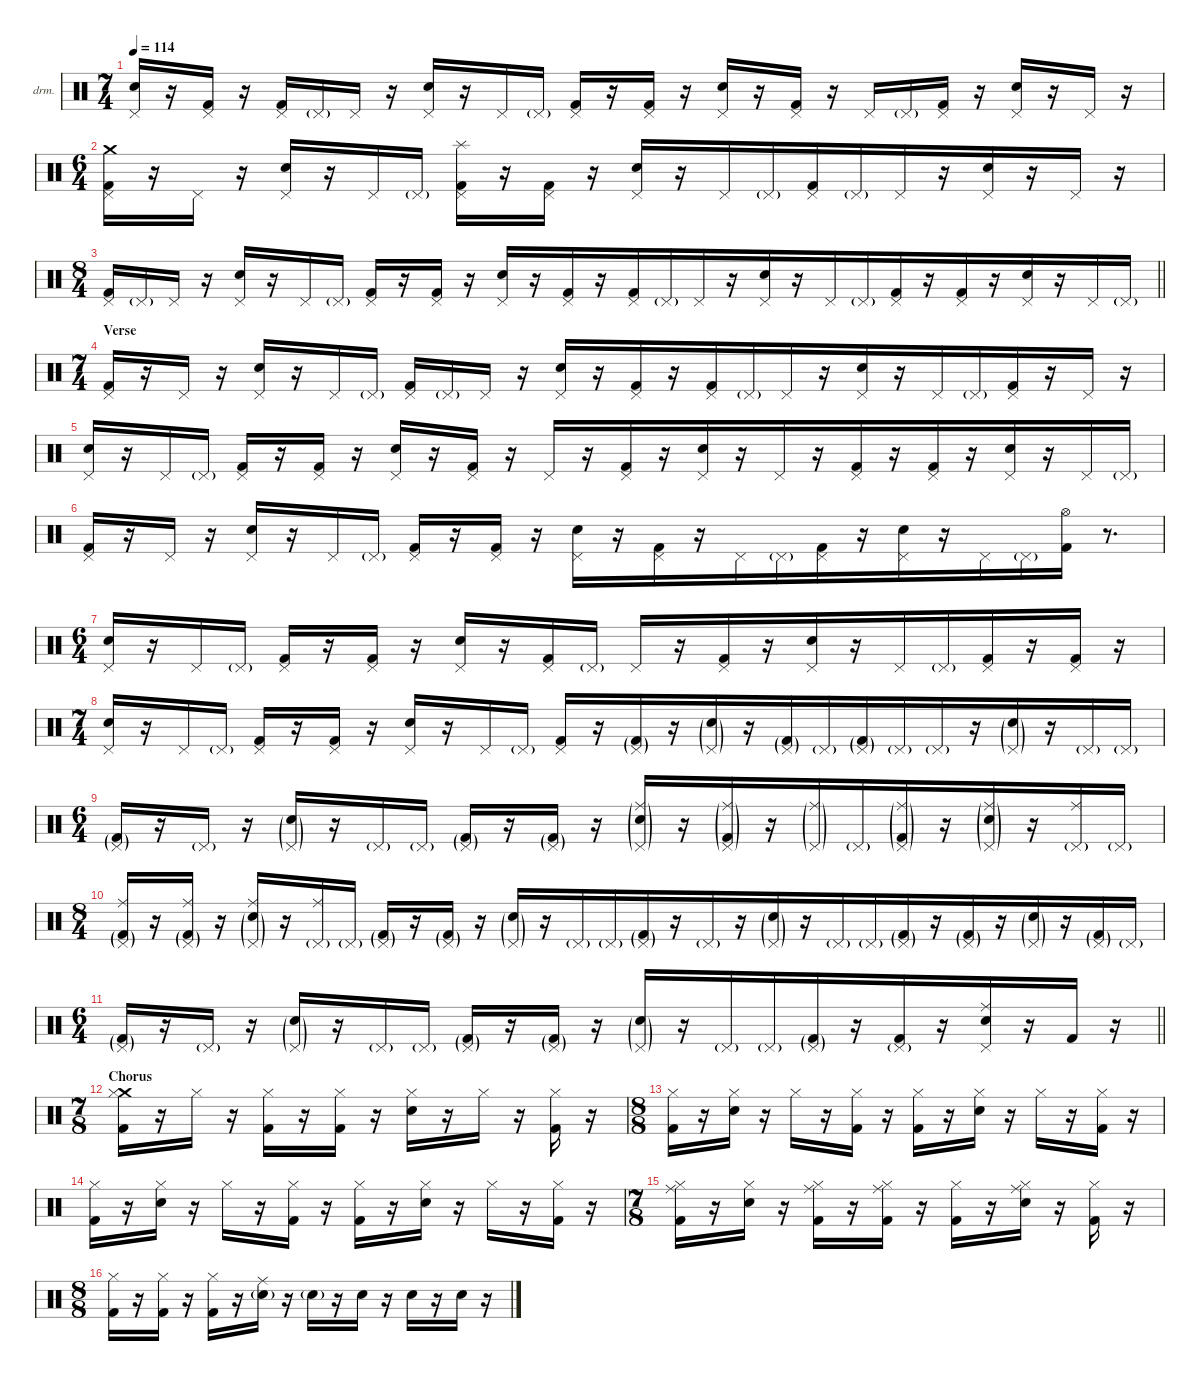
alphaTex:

\defaultSystemsLayout 4
\hideDynamics
\bracketExtendMode nobrackets
\firstSystemTrackNameOrientation horizontal
\otherSystemsTrackNameOrientation horizontal
\track ("Drums" "drm.") {instrument percussion}
\staff {score}
\articulation defaults
\ts (7 4)
\tempo 114
\clef neutral
\ks c
("Pedal Hi-Hat (hit)" "Snare (hit) 2").16{dy f} r.16 ("Pedal Hi-Hat (hit)" "Kick (hit) 2").16 r.16 ("Pedal Hi-Hat (hit)" "Kick (hit) 2").16 "Pedal Hi-Hat (hit)"{g}.16{dy mf} "Pedal Hi-Hat (hit)".16{dy f} r.16 ("Pedal Hi-Hat (hit)" "Snare (hit) 2").16 r.16 "Pedal Hi-Hat (hit)".16 "Pedal Hi-Hat (hit)"{g}.16{dy mf} ("Pedal Hi-Hat (hit)" "Kick (hit) 2").16{dy f} r.16 ("Pedal Hi-Hat (hit)" "Kick (hit) 2").16 r.16 ("Pedal Hi-Hat (hit)" "Snare (hit) 2").16 r.16 ("Pedal Hi-Hat (hit)" "Kick (hit) 2").16 r.16 "Pedal Hi-Hat (hit)".16 "Pedal Hi-Hat (hit)"{g}.16{dy mf} ("Pedal Hi-Hat (hit)" "Kick (hit) 2").16{dy f} r.16 ("Pedal Hi-Hat (hit)" "Snare (hit) 2").16 r.16 "Pedal Hi-Hat (hit)".16 r.16 |
\ts (6 4)
\beaming (8 2 2 2 6)
("Crash medium (hit)" "Pedal Hi-Hat (hit)" "Kick (hit) 2").16 r.16 "Pedal Hi-Hat (hit)".16 r.16 ("Pedal Hi-Hat (hit)" "Snare (hit) 2").16 r.16 "Pedal Hi-Hat (hit)".16 "Pedal Hi-Hat (hit)"{g}.16{dy mf} ("Splash (hit)" "Pedal Hi-Hat (hit)" "Kick (hit) 2").16{dy f} r.16 ("Pedal Hi-Hat (hit)" "Kick (hit) 2").16 r.16 ("Pedal Hi-Hat (hit)" "Snare (hit) 2").16 r.16 "Pedal Hi-Hat (hit)".16 "Pedal Hi-Hat (hit)"{g}.16{dy mf} ("Pedal Hi-Hat (hit)" "Kick (hit) 2").16{dy f} "Pedal Hi-Hat (hit)"{g}.16{dy mf} "Pedal Hi-Hat (hit)".16{dy f} r.16 ("Pedal Hi-Hat (hit)" "Snare (hit) 2").16 r.16 "Pedal Hi-Hat (hit)".16 r.16 |
\ts (8 4)
\beaming (8 2 2 2 10)
\barLineRight lightlight
("Pedal Hi-Hat (hit)" "Kick (hit) 2").16 "Pedal Hi-Hat (hit)"{g}.16{dy mf} "Pedal Hi-Hat (hit)".16{dy f} r.16 ("Pedal Hi-Hat (hit)" "Snare (hit) 2").16 r.16 "Pedal Hi-Hat (hit)".16 "Pedal Hi-Hat (hit)"{g}.16{dy mf} ("Pedal Hi-Hat (hit)" "Kick (hit) 2").16{dy f} r.16 ("Pedal Hi-Hat (hit)" "Kick (hit) 2").16 r.16 ("Pedal Hi-Hat (hit)" "Snare (hit) 2").16 r.16 ("Pedal Hi-Hat (hit)" "Kick (hit) 2").16 r.16 ("Pedal Hi-Hat (hit)" "Kick (hit) 2").16 "Pedal Hi-Hat (hit)"{g}.16{dy mf} "Pedal Hi-Hat (hit)".16{dy f} r.16 ("Pedal Hi-Hat (hit)" "Snare (hit) 2").16 r.16 "Pedal Hi-Hat (hit)".16 "Pedal Hi-Hat (hit)"{g}.16{dy mf} ("Pedal Hi-Hat (hit)" "Kick (hit) 2").16{dy f} r.16 ("Pedal Hi-Hat (hit)" "Kick (hit) 2").16 r.16 ("Pedal Hi-Hat (hit)" "Snare (hit) 2").16 r.16 "Pedal Hi-Hat (hit)".16 "Pedal Hi-Hat (hit)"{g}.16{dy mf} |
\ts (7 4)
\beaming (8 2 2 2 8)
\section ("" "Verse")
("Pedal Hi-Hat (hit)" "Kick (hit) 2").16{dy f} r.16 "Pedal Hi-Hat (hit)".16 r.16 ("Pedal Hi-Hat (hit)" "Snare (hit) 2").16 r.16 "Pedal Hi-Hat (hit)".16 "Pedal Hi-Hat (hit)"{g}.16{dy mf} ("Pedal Hi-Hat (hit)" "Kick (hit) 2").16{dy f} "Pedal Hi-Hat (hit)"{g}.16{dy mf} "Pedal Hi-Hat (hit)".16{dy f} r.16 ("Pedal Hi-Hat (hit)" "Snare (hit) 2").16 r.16 ("Pedal Hi-Hat (hit)" "Kick (hit) 2").16 r.16 ("Pedal Hi-Hat (hit)" "Kick (hit) 2").16 "Pedal Hi-Hat (hit)"{g}.16{dy mf} "Pedal Hi-Hat (hit)".16{dy f} r.16 ("Pedal Hi-Hat (hit)" "Snare (hit) 2").16 r.16 "Pedal Hi-Hat (hit)".16 "Pedal Hi-Hat (hit)"{g}.16{dy mf} ("Pedal Hi-Hat (hit)" "Kick (hit) 2").16{dy f} r.16 "Pedal Hi-Hat (hit)".16 r.16 |
("Pedal Hi-Hat (hit)" "Snare (hit) 2").16 r.16 "Pedal Hi-Hat (hit)".16 "Pedal Hi-Hat (hit)"{g}.16{dy mf} ("Pedal Hi-Hat (hit)" "Kick (hit) 2").16{dy f} r.16 ("Pedal Hi-Hat (hit)" "Kick (hit) 2").16 r.16 ("Pedal Hi-Hat (hit)" "Snare (hit) 2").16 r.16 ("Pedal Hi-Hat (hit)" "Kick (hit) 2").16 r.16 "Pedal Hi-Hat (hit)".16 r.16 ("Pedal Hi-Hat (hit)" "Kick (hit) 2").16 r.16 ("Pedal Hi-Hat (hit)" "Snare (hit) 2").16 r.16 "Pedal Hi-Hat (hit)".16 r.16 ("Pedal Hi-Hat (hit)" "Kick (hit) 2").16 r.16 ("Pedal Hi-Hat (hit)" "Kick (hit) 2").16 r.16 ("Pedal Hi-Hat (hit)" "Snare (hit) 2").16 r.16 "Pedal Hi-Hat (hit)".16 "Pedal Hi-Hat (hit)"{g}.16{dy mf} |
("Pedal Hi-Hat (hit)" "Kick (hit) 2").16{dy f} r.16 "Pedal Hi-Hat (hit)".16 r.16 ("Pedal Hi-Hat (hit)" "Snare (hit) 2").16 r.16 "Pedal Hi-Hat (hit)".16 "Pedal Hi-Hat (hit)"{g}.16{dy mf} ("Pedal Hi-Hat (hit)" "Kick (hit) 2").16{dy f} r.16 ("Pedal Hi-Hat (hit)" "Kick (hit) 2").16 r.16 ("Pedal Hi-Hat (hit)" "Snare (hit) 2").16 r.16 ("Pedal Hi-Hat (hit)" "Kick (hit) 2").16 r.16 "Pedal Hi-Hat (hit)".16 "Pedal Hi-Hat (hit)"{g}.16{dy mf} ("Pedal Hi-Hat (hit)" "Kick (hit) 2").16{dy f} r.16 ("Pedal Hi-Hat (hit)" "Snare (hit) 2").16 r.16 "Pedal Hi-Hat (hit)".16 "Pedal Hi-Hat (hit)"{g}.16{dy mf} ("Hi-Hat (open)" "Kick (hit) 2").16{dy f} r.8{d} |
\ts (6 4)
\beaming (8 2 2 2 6)
("Pedal Hi-Hat (hit)" "Snare (hit) 2").16 r.16 "Pedal Hi-Hat (hit)".16 "Pedal Hi-Hat (hit)"{g}.16{dy mf} ("Pedal Hi-Hat (hit)" "Kick (hit) 2").16{dy f} r.16 ("Pedal Hi-Hat (hit)" "Kick (hit) 2").16 r.16 ("Pedal Hi-Hat (hit)" "Snare (hit) 2").16 r.16 ("Pedal Hi-Hat (hit)" "Kick (hit) 2").16 "Pedal Hi-Hat (hit)"{g}.16{dy mf} "Pedal Hi-Hat (hit)".16{dy f} r.16 ("Pedal Hi-Hat (hit)" "Kick (hit) 2").16 r.16 ("Pedal Hi-Hat (hit)" "Snare (hit) 2").16 r.16 "Pedal Hi-Hat (hit)".16 "Pedal Hi-Hat (hit)"{g}.16{dy mf} ("Pedal Hi-Hat (hit)" "Kick (hit) 2").16{dy f} r.16 ("Pedal Hi-Hat (hit)" "Kick (hit) 2").16 r.16 |
\ts (7 4)
\beaming (8 2 2 2 8)
("Pedal Hi-Hat (hit)" "Snare (hit) 2").16 r.16 "Pedal Hi-Hat (hit)".16 "Pedal Hi-Hat (hit)"{g}.16{dy mf} ("Pedal Hi-Hat (hit)" "Kick (hit) 2").16{dy f} r.16 ("Pedal Hi-Hat (hit)" "Kick (hit) 2").16 r.16 ("Pedal Hi-Hat (hit)" "Snare (hit) 2").16 r.16 "Pedal Hi-Hat (hit)".16 "Pedal Hi-Hat (hit)"{g}.16{dy mf} ("Pedal Hi-Hat (hit)" "Kick (hit) 2").16{dy f} r.16 ("Pedal Hi-Hat (hit)"{g} "Kick (hit) 2"{g}).16{dy mf} r.16 ("Pedal Hi-Hat (hit)"{g} "Snare (hit) 2"{g}).16 r.16 ("Pedal Hi-Hat (hit)"{g} "Kick (hit) 2"{g}).16 "Pedal Hi-Hat (hit)"{g}.16{dy p} ("Pedal Hi-Hat (hit)"{g} "Kick (hit) 2"{g}).16{dy mf} "Pedal Hi-Hat (hit)"{g}.16{dy p} "Pedal Hi-Hat (hit)"{g}.16{dy mf} r.16 ("Pedal Hi-Hat (hit)"{g} "Snare (hit) 2"{g}).16 r.16 "Pedal Hi-Hat (hit)"{g}.16 "Pedal Hi-Hat (hit)"{g}.16{dy p} |
\ts (6 4)
\beaming (8 2 2 2 6)
("Pedal Hi-Hat (hit)"{g} "Kick (hit) 2"{g}).16{dy mf} r.16 "Pedal Hi-Hat (hit)"{g}.16 r.16 ("Pedal Hi-Hat (hit)"{g} "Snare (hit) 2"{g}).16 r.16 "Pedal Hi-Hat (hit)"{g}.16 "Pedal Hi-Hat (hit)"{g}.16{dy p} ("Pedal Hi-Hat (hit)"{g} "Kick (hit) 2"{g}).16{dy mf} r.16 ("Pedal Hi-Hat (hit)"{g} "Kick (hit) 2"{g}).16 r.16 ("Ride (middle)"{g} "Pedal Hi-Hat (hit)"{g} "Snare (hit) 2"{g}).16 r.16 ("Ride (middle)"{g} "Pedal Hi-Hat (hit)"{g} "Kick (hit) 2"{g}).16 r.16 ("Ride (middle)"{g} "Pedal Hi-Hat (hit)"{g}).16 "Pedal Hi-Hat (hit)"{g}.16{dy p} ("Ride (middle)"{g} "Pedal Hi-Hat (hit)"{g} "Kick (hit) 2"{g}).16{dy mf} r.16 ("Ride (middle)"{g} "Pedal Hi-Hat (hit)"{g} "Snare (hit) 2"{g}).16 r.16 ("Ride (middle)" "Pedal Hi-Hat (hit)"{g}).16{dy f} "Pedal Hi-Hat (hit)"{g}.16{dy p} |
\ts (8 4)
\beaming (8 2 2 2 10)
("Ride (middle)" "Pedal Hi-Hat (hit)"{g} "Kick (hit) 2"{g}).16{dy f} r.16 ("Ride (middle)" "Pedal Hi-Hat (hit)"{g} "Kick (hit) 2"{g}).16 r.16 ("Ride (middle)" "Pedal Hi-Hat (hit)"{g} "Snare (hit) 2"{g}).16 r.16 ("Ride (middle)" "Pedal Hi-Hat (hit)"{g}).16 "Pedal Hi-Hat (hit)"{g}.16{dy p} ("Pedal Hi-Hat (hit)"{g} "Kick (hit) 2"{g}).16{dy mf} r.16 ("Pedal Hi-Hat (hit)"{g} "Kick (hit) 2"{g}).16 r.16 ("Pedal Hi-Hat (hit)"{g} "Snare (hit) 2"{g}).16 r.16 "Pedal Hi-Hat (hit)"{g}.16 "Pedal Hi-Hat (hit)"{g}.16{dy p} ("Pedal Hi-Hat (hit)"{g} "Kick (hit) 2"{g}).16{dy mf} r.16 "Pedal Hi-Hat (hit)"{g}.16 r.16 ("Pedal Hi-Hat (hit)"{g} "Snare (hit) 2"{g}).16 r.16 "Pedal Hi-Hat (hit)"{g}.16 "Pedal Hi-Hat (hit)"{g}.16{dy p} ("Pedal Hi-Hat (hit)"{g} "Kick (hit) 2"{g}).16{dy mf} r.16 ("Pedal Hi-Hat (hit)"{g} "Kick (hit) 2"{g}).16 r.16 ("Pedal Hi-Hat (hit)"{g} "Snare (hit) 2"{g}).16 r.16 ("Pedal Hi-Hat (hit)"{g} "Kick (hit) 2"{g}).16 "Pedal Hi-Hat (hit)"{g}.16{dy p} |
\ts (6 4)
\beaming (8 2 2 2 6)
\barLineRight lightlight
("Pedal Hi-Hat (hit)"{g} "Kick (hit) 2"{g}).16{dy mf} r.16 "Pedal Hi-Hat (hit)"{g}.16 r.16 ("Pedal Hi-Hat (hit)"{g} "Snare (hit) 2"{g}).16 r.16 "Pedal Hi-Hat (hit)"{g}.16 "Pedal Hi-Hat (hit)"{g}.16{dy p} ("Pedal Hi-Hat (hit)"{g} "Kick (hit) 2"{g}).16{dy mf} r.16 ("Pedal Hi-Hat (hit)"{g} "Kick (hit) 2"{g}).16 r.16 ("Pedal Hi-Hat (hit)"{g} "Snare (hit) 2"{g}).16 r.16 "Pedal Hi-Hat (hit)"{g}.16 "Pedal Hi-Hat (hit)"{g}.16{dy p} ("Pedal Hi-Hat (hit)"{g} "Kick (hit) 2"{g}).16{dy mf} r.16 ("Pedal Hi-Hat (hit)"{g} "Kick (hit) 2").16{dy f} r.16 ("Ride (middle)" "Pedal Hi-Hat (hit)" "Snare (hit) 2").16 r.16 "Kick (hit) 2".16 r.16 |
\ts (7 8)
\beaming (8 2 2 2 2)
\section ("" "Chorus")
("Crash medium (hit)" "Hi-Hat (closed)" "Kick (hit) 2").16 r.16 "Hi-Hat (closed)".16 r.16 ("Hi-Hat (closed)" "Kick (hit) 2").16 r.16 ("Hi-Hat (closed)" "Kick (hit) 2").16 r.16 ("Hi-Hat (closed)" "Snare (hit) 2").16 r.16 "Hi-Hat (closed)".16 r.16 ("Hi-Hat (closed)" "Kick (hit) 2").16 r.16 |
\ts (8 8)
\beaming (8 2 2 2 2)
("Hi-Hat (closed)" "Kick (hit) 2").16 r.16 ("Hi-Hat (closed)" "Snare (hit) 2").16 r.16 "Hi-Hat (closed)".16 r.16 ("Hi-Hat (closed)" "Kick (hit) 2").16 r.16 ("Hi-Hat (closed)" "Kick (hit) 2").16 r.16 ("Hi-Hat (closed)" "Snare (hit) 2").16 r.16 "Hi-Hat (closed)".16 r.16 ("Hi-Hat (closed)" "Kick (hit) 2").16 r.16 |
("Hi-Hat (closed)" "Kick (hit) 2").16 r.16 ("Hi-Hat (closed)" "Snare (hit) 2").16 r.16 "Hi-Hat (closed)".16 r.16 ("Hi-Hat (closed)" "Kick (hit) 2").16 r.16 ("Hi-Hat (closed)" "Kick (hit) 2").16 r.16 ("Hi-Hat (closed)" "Snare (hit) 2").16 r.16 "Hi-Hat (closed)".16 r.16 ("Hi-Hat (closed)" "Kick (hit) 2").16 r.16 |
\ts (7 8)
\beaming (8 2 2 2 2)
("Ride (middle)" "Hi-Hat (closed)" "Kick (hit) 2").16 r.16 ("Hi-Hat (closed)" "Snare (hit) 2").16 r.16 ("Ride (middle)" "Hi-Hat (closed)" "Kick (hit) 2").16 r.16 ("Ride (middle)" "Hi-Hat (closed)" "Kick (hit) 2").16 r.16 ("Hi-Hat (closed)" "Kick (hit) 2").16 r.16 ("Ride (middle)" "Hi-Hat (closed)" "Snare (hit) 2").16 r.16 ("Hi-Hat (closed)" "Kick (hit) 2").16 r.16 |
\ts (8 8)
\beaming (8 2 2 2 2)
("Hi-Hat (closed)" "Kick (hit) 2").16 r.16 ("Hi-Hat (closed)" "Kick (hit) 2").16 r.16 ("Hi-Hat (closed)" "Kick (hit) 2").16 r.16 ("Ride (middle)" "Snare (hit) 2"{g}).16 r.16 "Snare (hit) 2"{g}.16{dy mf} r.16 "Snare (hit) 2".16{dy f} r.16 "Snare (hit) 2".16 r.16 "Snare (hit) 2".16 r.16
